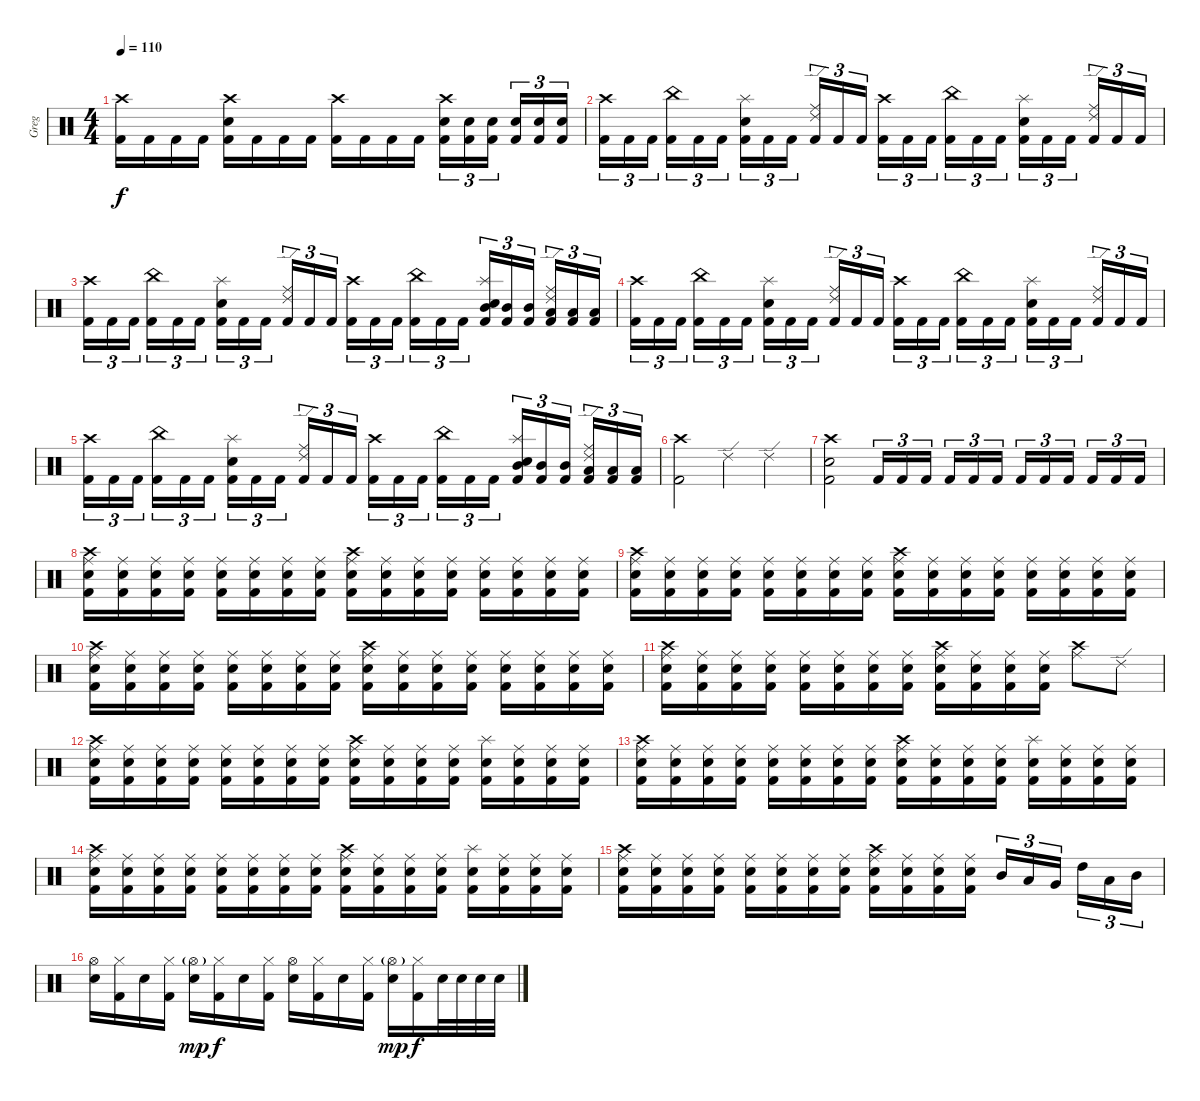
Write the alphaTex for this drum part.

\track ("Greg" "Greg") {instrument percussion}
\staff {score}
\articulation defaults
\ts (4 4)
\tempo 110
\clef neutral
\ks c
("Crash high (hit)" "Kick (hit) 2").16{dy f} "Kick (hit) 2".16 "Kick (hit) 2".16 "Kick (hit) 2".16 ("Crash high (hit)" "Snare (hit) 2" "Kick (hit) 2").16 "Kick (hit) 2".16 "Kick (hit) 2".16 "Kick (hit) 2".16 ("Crash high (hit)" "Kick (hit) 2").16 "Kick (hit) 2".16 "Kick (hit) 2".16 "Kick (hit) 2".16 ("Crash high (hit)" "Snare (hit) 2" "Kick (hit) 2").16{tu (3 2)} ("Snare (hit) 2" "Kick (hit) 2").16{tu (3 2)} ("Snare (hit) 2" "Kick (hit) 2").16{tu (3 2) beam splitsecondary} ("Snare (hit) 2" "Kick (hit) 2").16{tu (3 2)} ("Snare (hit) 2" "Kick (hit) 2").16{tu (3 2)} ("Snare (hit) 2" "Kick (hit) 2").16{tu (3 2)} |
("Crash high (hit)" "Kick (hit) 2").16{tu (3 2)} "Kick (hit) 2".16{tu (3 2)} "Kick (hit) 2".16{tu (3 2) beam splitsecondary} ("China (hit)" "Kick (hit) 2").16{tu (3 2)} "Kick (hit) 2".16{tu (3 2)} "Kick (hit) 2".16{tu (3 2)} ("Splash (hit)" "Snare (hit) 2" "Kick (hit) 2").16{tu (3 2)} "Kick (hit) 2".16{tu (3 2)} "Kick (hit) 2".16{tu (3 2) beam splitsecondary} ("Ride (middle)" "Ride (edge) 2" "Kick (hit) 2").16{tu (3 2)} "Kick (hit) 2".16{tu (3 2)} "Kick (hit) 2".16{tu (3 2)} ("Crash high (hit)" "Kick (hit) 2").16{tu (3 2)} "Kick (hit) 2".16{tu (3 2)} "Kick (hit) 2".16{tu (3 2) beam splitsecondary} ("China (hit)" "Kick (hit) 2").16{tu (3 2)} "Kick (hit) 2".16{tu (3 2)} "Kick (hit) 2".16{tu (3 2)} ("Splash (hit)" "Snare (hit) 2" "Kick (hit) 2").16{tu (3 2)} "Kick (hit) 2".16{tu (3 2)} "Kick (hit) 2".16{tu (3 2) beam splitsecondary} ("Ride (middle)" "Ride (edge) 2" "Kick (hit) 2").16{tu (3 2)} "Kick (hit) 2".16{tu (3 2)} "Kick (hit) 2".16{tu (3 2)} |
("Crash high (hit)" "Kick (hit) 2").16{tu (3 2)} "Kick (hit) 2".16{tu (3 2)} "Kick (hit) 2".16{tu (3 2) beam splitsecondary} ("China (hit)" "Kick (hit) 2").16{tu (3 2)} "Kick (hit) 2".16{tu (3 2)} "Kick (hit) 2".16{tu (3 2)} ("Splash (hit)" "Snare (hit) 2" "Kick (hit) 2").16{tu (3 2)} "Kick (hit) 2".16{tu (3 2)} "Kick (hit) 2".16{tu (3 2) beam splitsecondary} ("Ride (middle)" "Ride (edge) 2" "Kick (hit) 2").16{tu (3 2)} "Kick (hit) 2".16{tu (3 2)} "Kick (hit) 2".16{tu (3 2)} ("Crash high (hit)" "Kick (hit) 2").16{tu (3 2)} "Kick (hit) 2".16{tu (3 2)} "Kick (hit) 2".16{tu (3 2) beam splitsecondary} ("China (hit)" "Kick (hit) 2").16{tu (3 2)} "Kick (hit) 2".16{tu (3 2)} "Kick (hit) 2".16{tu (3 2)} ("Splash (hit)" "Mid Tom (hit)" "Snare (hit) 2" "Kick (hit) 2").16{tu (3 2)} ("Mid Tom (hit)" "Kick (hit) 2").16{tu (3 2)} ("Mid Tom (hit)" "Kick (hit) 2").16{tu (3 2) beam splitsecondary} ("Ride (middle)" "Ride (edge) 2" "Low Tom (hit)" "Kick (hit) 2").16{tu (3 2)} ("Low Tom (hit)" "Kick (hit) 2").16{tu (3 2)} ("Low Tom (hit)" "Kick (hit) 2").16{tu (3 2)} |
("Crash high (hit)" "Kick (hit) 2").16{tu (3 2)} "Kick (hit) 2".16{tu (3 2)} "Kick (hit) 2".16{tu (3 2) beam splitsecondary} ("China (hit)" "Kick (hit) 2").16{tu (3 2)} "Kick (hit) 2".16{tu (3 2)} "Kick (hit) 2".16{tu (3 2)} ("Splash (hit)" "Snare (hit) 2" "Kick (hit) 2").16{tu (3 2)} "Kick (hit) 2".16{tu (3 2)} "Kick (hit) 2".16{tu (3 2) beam splitsecondary} ("Ride (middle)" "Ride (edge) 2" "Kick (hit) 2").16{tu (3 2)} "Kick (hit) 2".16{tu (3 2)} "Kick (hit) 2".16{tu (3 2)} ("Crash high (hit)" "Kick (hit) 2").16{tu (3 2)} "Kick (hit) 2".16{tu (3 2)} "Kick (hit) 2".16{tu (3 2) beam splitsecondary} ("China (hit)" "Kick (hit) 2").16{tu (3 2)} "Kick (hit) 2".16{tu (3 2)} "Kick (hit) 2".16{tu (3 2)} ("Splash (hit)" "Snare (hit) 2" "Kick (hit) 2").16{tu (3 2)} "Kick (hit) 2".16{tu (3 2)} "Kick (hit) 2".16{tu (3 2) beam splitsecondary} ("Ride (middle)" "Ride (edge) 2" "Kick (hit) 2").16{tu (3 2)} "Kick (hit) 2".16{tu (3 2)} "Kick (hit) 2".16{tu (3 2)} |
("Crash high (hit)" "Kick (hit) 2").16{tu (3 2)} "Kick (hit) 2".16{tu (3 2)} "Kick (hit) 2".16{tu (3 2) beam splitsecondary} ("China (hit)" "Kick (hit) 2").16{tu (3 2)} "Kick (hit) 2".16{tu (3 2)} "Kick (hit) 2".16{tu (3 2)} ("Splash (hit)" "Snare (hit) 2" "Kick (hit) 2").16{tu (3 2)} "Kick (hit) 2".16{tu (3 2)} "Kick (hit) 2".16{tu (3 2) beam splitsecondary} ("Ride (middle)" "Ride (edge) 2" "Kick (hit) 2").16{tu (3 2)} "Kick (hit) 2".16{tu (3 2)} "Kick (hit) 2".16{tu (3 2)} ("Crash high (hit)" "Kick (hit) 2").16{tu (3 2)} "Kick (hit) 2".16{tu (3 2)} "Kick (hit) 2".16{tu (3 2) beam splitsecondary} ("China (hit)" "Kick (hit) 2").16{tu (3 2)} "Kick (hit) 2".16{tu (3 2)} "Kick (hit) 2".16{tu (3 2)} ("Splash (hit)" "Mid Tom (hit)" "Snare (hit) 2" "Kick (hit) 2").16{tu (3 2)} ("Mid Tom (hit)" "Kick (hit) 2").16{tu (3 2)} ("Mid Tom (hit)" "Kick (hit) 2").16{tu (3 2) beam splitsecondary} ("Ride (middle)" "Ride (edge) 2" "Low Tom (hit)" "Kick (hit) 2").16{tu (3 2)} ("Low Tom (hit)" "Kick (hit) 2").16{tu (3 2)} ("Low Tom (hit)" "Kick (hit) 2").16{tu (3 2)} |
("Crash high (hit)" "Kick (hit) 2").2 "Ride (edge) 2".4 "Ride (edge) 2".4 |
("Crash high (hit)" "Snare (hit) 2" "Kick (hit) 2").2 "Kick (hit) 2".16{tu (3 2)} "Kick (hit) 2".16{tu (3 2)} "Kick (hit) 2".16{tu (3 2) beam splitsecondary} "Kick (hit) 2".16{tu (3 2)} "Kick (hit) 2".16{tu (3 2)} "Kick (hit) 2".16{tu (3 2)} "Kick (hit) 2".16{tu (3 2)} "Kick (hit) 2".16{tu (3 2)} "Kick (hit) 2".16{tu (3 2) beam splitsecondary} "Kick (hit) 2".16{tu (3 2)} "Kick (hit) 2".16{tu (3 2)} "Kick (hit) 2".16{tu (3 2)} |
("Crash high (hit)" "Ride (middle)" "Snare (hit) 2" "Kick (hit) 2").16 ("Ride (middle)" "Snare (hit) 2" "Kick (hit) 2").16 ("Ride (middle)" "Snare (hit) 2" "Kick (hit) 2").16 ("Ride (middle)" "Snare (hit) 2" "Kick (hit) 2").16 ("Ride (middle)" "Snare (hit) 2" "Kick (hit) 2").16 ("Ride (middle)" "Snare (hit) 2" "Kick (hit) 2").16 ("Ride (middle)" "Snare (hit) 2" "Kick (hit) 2").16 ("Ride (middle)" "Snare (hit) 2" "Kick (hit) 2").16 ("Crash high (hit)" "Ride (middle)" "Snare (hit) 2" "Kick (hit) 2").16 ("Ride (middle)" "Snare (hit) 2" "Kick (hit) 2").16 ("Ride (middle)" "Snare (hit) 2" "Kick (hit) 2").16 ("Ride (middle)" "Snare (hit) 2" "Kick (hit) 2").16 ("Ride (middle)" "Snare (hit) 2" "Kick (hit) 2").16 ("Ride (middle)" "Snare (hit) 2" "Kick (hit) 2").16 ("Ride (middle)" "Snare (hit) 2" "Kick (hit) 2").16 ("Ride (middle)" "Snare (hit) 2" "Kick (hit) 2").16 |
("Crash high (hit)" "Ride (middle)" "Snare (hit) 2" "Kick (hit) 2").16 ("Ride (middle)" "Snare (hit) 2" "Kick (hit) 2").16 ("Ride (middle)" "Snare (hit) 2" "Kick (hit) 2").16 ("Ride (middle)" "Snare (hit) 2" "Kick (hit) 2").16 ("Ride (middle)" "Snare (hit) 2" "Kick (hit) 2").16 ("Ride (middle)" "Snare (hit) 2" "Kick (hit) 2").16 ("Ride (middle)" "Snare (hit) 2" "Kick (hit) 2").16 ("Ride (middle)" "Snare (hit) 2" "Kick (hit) 2").16 ("Crash high (hit)" "Ride (middle)" "Snare (hit) 2" "Kick (hit) 2").16 ("Ride (middle)" "Snare (hit) 2" "Kick (hit) 2").16 ("Ride (middle)" "Snare (hit) 2" "Kick (hit) 2").16 ("Ride (middle)" "Snare (hit) 2" "Kick (hit) 2").16 ("Ride (middle)" "Snare (hit) 2" "Kick (hit) 2").16 ("Ride (middle)" "Snare (hit) 2" "Kick (hit) 2").16 ("Ride (middle)" "Snare (hit) 2" "Kick (hit) 2").16 ("Ride (middle)" "Snare (hit) 2" "Kick (hit) 2").16 |
("Crash high (hit)" "Ride (middle)" "Snare (hit) 2" "Kick (hit) 2").16 ("Ride (middle)" "Snare (hit) 2" "Kick (hit) 2").16 ("Ride (middle)" "Snare (hit) 2" "Kick (hit) 2").16 ("Ride (middle)" "Snare (hit) 2" "Kick (hit) 2").16 ("Ride (middle)" "Snare (hit) 2" "Kick (hit) 2").16 ("Ride (middle)" "Snare (hit) 2" "Kick (hit) 2").16 ("Ride (middle)" "Snare (hit) 2" "Kick (hit) 2").16 ("Ride (middle)" "Snare (hit) 2" "Kick (hit) 2").16 ("Crash high (hit)" "Ride (middle)" "Snare (hit) 2" "Kick (hit) 2").16 ("Ride (middle)" "Snare (hit) 2" "Kick (hit) 2").16 ("Ride (middle)" "Snare (hit) 2" "Kick (hit) 2").16 ("Ride (middle)" "Snare (hit) 2" "Kick (hit) 2").16 ("Ride (middle)" "Snare (hit) 2" "Kick (hit) 2").16 ("Ride (middle)" "Snare (hit) 2" "Kick (hit) 2").16 ("Ride (middle)" "Snare (hit) 2" "Kick (hit) 2").16 ("Ride (middle)" "Snare (hit) 2" "Kick (hit) 2").16 |
("Crash high (hit)" "Ride (middle)" "Snare (hit) 2" "Kick (hit) 2").16 ("Ride (middle)" "Snare (hit) 2" "Kick (hit) 2").16 ("Ride (middle)" "Snare (hit) 2" "Kick (hit) 2").16 ("Ride (middle)" "Snare (hit) 2" "Kick (hit) 2").16 ("Ride (middle)" "Snare (hit) 2" "Kick (hit) 2").16 ("Ride (middle)" "Snare (hit) 2" "Kick (hit) 2").16 ("Ride (middle)" "Snare (hit) 2" "Kick (hit) 2").16 ("Ride (middle)" "Snare (hit) 2" "Kick (hit) 2").16 ("Crash high (hit)" "Ride (middle)" "Snare (hit) 2" "Kick (hit) 2").16 ("Ride (middle)" "Snare (hit) 2" "Kick (hit) 2").16 ("Ride (middle)" "Snare (hit) 2" "Kick (hit) 2").16 ("Ride (middle)" "Snare (hit) 2" "Kick (hit) 2").16 ("Crash high (hit)" "Ride (middle)").8 "Ride (edge) 2".8 |
("Crash high (hit)" "Ride (middle)" "Snare (hit) 2" "Kick (hit) 2").16 ("Ride (middle)" "Snare (hit) 2" "Kick (hit) 2").16 ("Ride (middle)" "Snare (hit) 2" "Kick (hit) 2").16 ("Ride (middle)" "Snare (hit) 2" "Kick (hit) 2").16 ("Ride (middle)" "Snare (hit) 2" "Kick (hit) 2").16 ("Ride (middle)" "Snare (hit) 2" "Kick (hit) 2").16 ("Ride (middle)" "Snare (hit) 2" "Kick (hit) 2").16 ("Ride (middle)" "Snare (hit) 2" "Kick (hit) 2").16 ("Crash high (hit)" "Ride (middle)" "Snare (hit) 2" "Kick (hit) 2").16 ("Ride (middle)" "Snare (hit) 2" "Kick (hit) 2").16 ("Ride (middle)" "Snare (hit) 2" "Kick (hit) 2").16 ("Ride (middle)" "Snare (hit) 2" "Kick (hit) 2").16 ("Splash (hit)" "Snare (hit) 2" "Kick (hit) 2").16 ("Ride (middle)" "Snare (hit) 2" "Kick (hit) 2").16 ("Ride (middle)" "Snare (hit) 2" "Kick (hit) 2").16 ("Ride (middle)" "Snare (hit) 2" "Kick (hit) 2").16 |
("Crash high (hit)" "Ride (middle)" "Snare (hit) 2" "Kick (hit) 2").16 ("Ride (middle)" "Snare (hit) 2" "Kick (hit) 2").16 ("Ride (middle)" "Snare (hit) 2" "Kick (hit) 2").16 ("Ride (middle)" "Snare (hit) 2" "Kick (hit) 2").16 ("Ride (middle)" "Snare (hit) 2" "Kick (hit) 2").16 ("Ride (middle)" "Snare (hit) 2" "Kick (hit) 2").16 ("Ride (middle)" "Snare (hit) 2" "Kick (hit) 2").16 ("Ride (middle)" "Snare (hit) 2" "Kick (hit) 2").16 ("Crash high (hit)" "Ride (middle)" "Snare (hit) 2" "Kick (hit) 2").16 ("Ride (middle)" "Snare (hit) 2" "Kick (hit) 2").16 ("Ride (middle)" "Snare (hit) 2" "Kick (hit) 2").16 ("Ride (middle)" "Snare (hit) 2" "Kick (hit) 2").16 ("Splash (hit)" "Snare (hit) 2" "Kick (hit) 2").16 ("Ride (middle)" "Snare (hit) 2" "Kick (hit) 2").16 ("Ride (middle)" "Snare (hit) 2" "Kick (hit) 2").16 ("Ride (middle)" "Snare (hit) 2" "Kick (hit) 2").16 |
("Crash high (hit)" "Ride (middle)" "Snare (hit) 2" "Kick (hit) 2").16 ("Ride (middle)" "Snare (hit) 2" "Kick (hit) 2").16 ("Ride (middle)" "Snare (hit) 2" "Kick (hit) 2").16 ("Ride (middle)" "Snare (hit) 2" "Kick (hit) 2").16 ("Ride (middle)" "Snare (hit) 2" "Kick (hit) 2").16 ("Ride (middle)" "Snare (hit) 2" "Kick (hit) 2").16 ("Ride (middle)" "Snare (hit) 2" "Kick (hit) 2").16 ("Ride (middle)" "Snare (hit) 2" "Kick (hit) 2").16 ("Crash high (hit)" "Ride (middle)" "Snare (hit) 2" "Kick (hit) 2").16 ("Ride (middle)" "Snare (hit) 2" "Kick (hit) 2").16 ("Ride (middle)" "Snare (hit) 2" "Kick (hit) 2").16 ("Ride (middle)" "Snare (hit) 2" "Kick (hit) 2").16 ("Splash (hit)" "Snare (hit) 2" "Kick (hit) 2").16 ("Ride (middle)" "Snare (hit) 2" "Kick (hit) 2").16 ("Ride (middle)" "Snare (hit) 2" "Kick (hit) 2").16 ("Ride (middle)" "Snare (hit) 2" "Kick (hit) 2").16 |
("Crash high (hit)" "Ride (middle)" "Snare (hit) 2" "Kick (hit) 2").16 ("Ride (middle)" "Snare (hit) 2" "Kick (hit) 2").16 ("Ride (middle)" "Snare (hit) 2" "Kick (hit) 2").16 ("Ride (middle)" "Snare (hit) 2" "Kick (hit) 2").16 ("Ride (middle)" "Snare (hit) 2" "Kick (hit) 2").16 ("Ride (middle)" "Snare (hit) 2" "Kick (hit) 2").16 ("Ride (middle)" "Snare (hit) 2" "Kick (hit) 2").16 ("Ride (middle)" "Snare (hit) 2" "Kick (hit) 2").16 ("Crash high (hit)" "Ride (middle)" "Snare (hit) 2" "Kick (hit) 2").16 ("Ride (middle)" "Snare (hit) 2" "Kick (hit) 2").16 ("Ride (middle)" "Snare (hit) 2" "Kick (hit) 2").16 ("Ride (middle)" "Snare (hit) 2" "Kick (hit) 2").16 "Mid Tom (hit)".16{tu (3 2)} "Low Tom (hit)".16{tu (3 2)} "Very Low Tom (hit)".16{tu (3 2) beam splitsecondary} "High Tom (hit)".16{tu (3 2)} "Low Tom (hit)".16{tu (3 2)} "Mid Tom (hit)".16{tu (3 2)} |
("Hi-Hat (open)" "Snare (hit) 2").16 ("Hi-Hat (closed)" "Kick (hit) 2").16 "Snare (hit) 2".16 ("Hi-Hat (closed)" "Kick (hit) 2").16 ("Hi-Hat (open)"{g} "Snare (hit) 2").16{dy mp} ("Hi-Hat (closed)" "Kick (hit) 2").16{dy f} "Snare (hit) 2".16 ("Hi-Hat (closed)" "Kick (hit) 2").16 ("Hi-Hat (open)" "Snare (hit) 2").16 ("Hi-Hat (closed)" "Kick (hit) 2").16 "Snare (hit) 2".16 ("Hi-Hat (closed)" "Kick (hit) 2").16 ("Hi-Hat (open)"{g} "Snare (hit) 2").16{dy mp} ("Hi-Hat (closed)" "Kick (hit) 2").16{dy f} "Snare (hit) 2".32 "Snare (hit) 2".32 "Snare (hit) 2".32 "Snare (hit) 2".32
